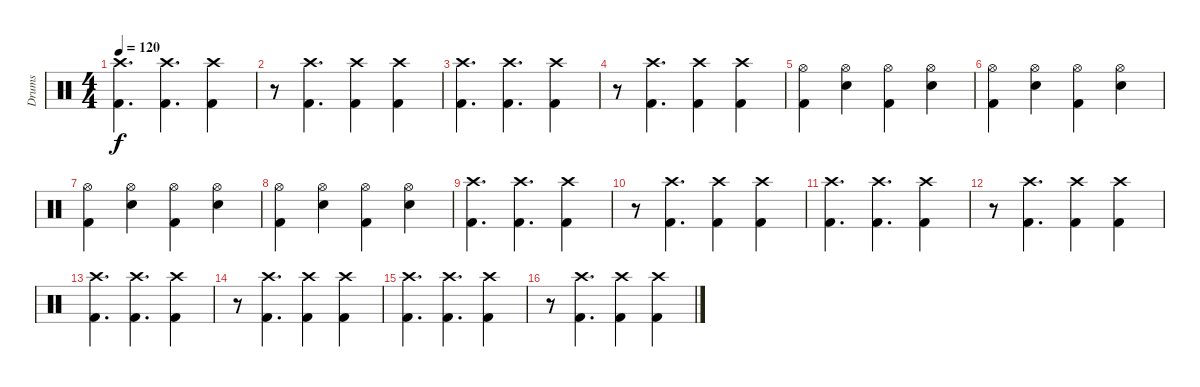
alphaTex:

\track ("Drums" "Drums") {instrument percussion}
\staff {score}
\articulation defaults
\ts (4 4)
\tempo 120
\clef neutral
\ks c
("Crash high (hit)" "Kick (hit) 2").4{d dy f} ("Crash high (hit)" "Kick (hit) 2").4{d} ("Crash high (hit)" "Kick (hit) 2").4 |
r.8 ("Crash high (hit)" "Kick (hit) 2").4{d} ("Crash high (hit)" "Kick (hit) 2").4 ("Crash high (hit)" "Kick (hit) 2").4 |
("Crash high (hit)" "Kick (hit) 2").4{d} ("Crash high (hit)" "Kick (hit) 2").4{d} ("Crash high (hit)" "Kick (hit) 2").4 |
r.8 ("Crash high (hit)" "Kick (hit) 2").4{d} ("Crash high (hit)" "Kick (hit) 2").4 ("Crash high (hit)" "Kick (hit) 2").4 |
("Hi-Hat (open)" "Kick (hit) 2").4 ("Hi-Hat (open)" "Snare (hit) 2").4 ("Hi-Hat (open)" "Kick (hit) 2").4 ("Hi-Hat (open)" "Snare (hit) 2").4 |
("Hi-Hat (open)" "Kick (hit) 2").4 ("Hi-Hat (open)" "Snare (hit) 2").4 ("Hi-Hat (open)" "Kick (hit) 2").4 ("Hi-Hat (open)" "Snare (hit) 2").4 |
("Hi-Hat (open)" "Kick (hit) 2").4 ("Hi-Hat (open)" "Snare (hit) 2").4 ("Hi-Hat (open)" "Kick (hit) 2").4 ("Hi-Hat (open)" "Snare (hit) 2").4 |
("Hi-Hat (open)" "Kick (hit) 2").4 ("Hi-Hat (open)" "Snare (hit) 2").4 ("Hi-Hat (open)" "Kick (hit) 2").4 ("Hi-Hat (open)" "Snare (hit) 2").4 |
("Crash high (hit)" "Kick (hit) 2").4{d} ("Crash high (hit)" "Kick (hit) 2").4{d} ("Crash high (hit)" "Kick (hit) 2").4 |
r.8 ("Crash high (hit)" "Kick (hit) 2").4{d} ("Crash high (hit)" "Kick (hit) 2").4 ("Crash high (hit)" "Kick (hit) 2").4 |
("Crash high (hit)" "Kick (hit) 2").4{d} ("Crash high (hit)" "Kick (hit) 2").4{d} ("Crash high (hit)" "Kick (hit) 2").4 |
r.8 ("Crash high (hit)" "Kick (hit) 2").4{d} ("Crash high (hit)" "Kick (hit) 2").4 ("Crash high (hit)" "Kick (hit) 2").4 |
("Crash high (hit)" "Kick (hit) 2").4{d} ("Crash high (hit)" "Kick (hit) 2").4{d} ("Crash high (hit)" "Kick (hit) 2").4 |
r.8 ("Crash high (hit)" "Kick (hit) 2").4{d} ("Crash high (hit)" "Kick (hit) 2").4 ("Crash high (hit)" "Kick (hit) 2").4 |
("Crash high (hit)" "Kick (hit) 2").4{d} ("Crash high (hit)" "Kick (hit) 2").4{d} ("Crash high (hit)" "Kick (hit) 2").4 |
r.8 ("Crash high (hit)" "Kick (hit) 2").4{d} ("Crash high (hit)" "Kick (hit) 2").4 ("Crash high (hit)" "Kick (hit) 2").4
